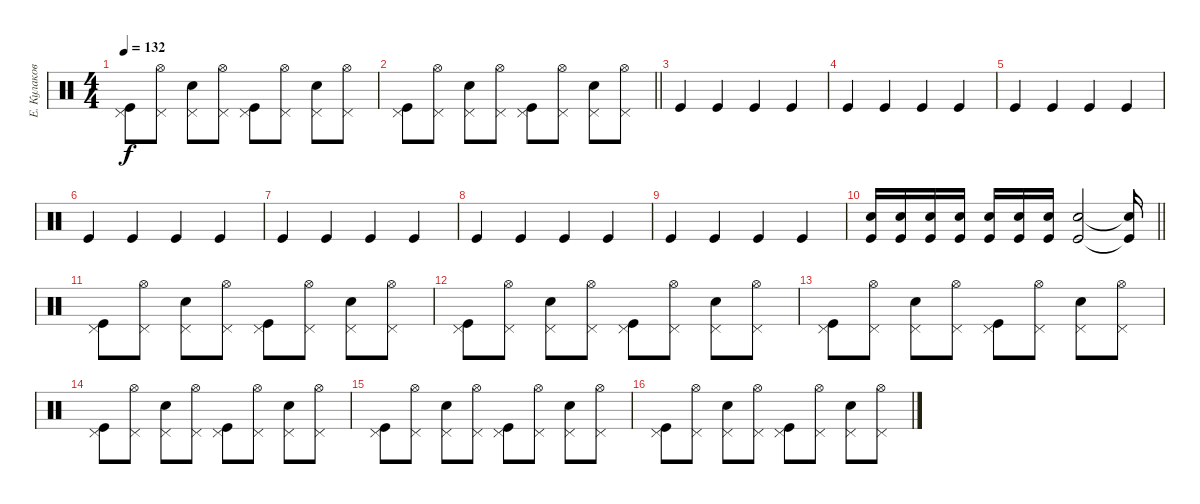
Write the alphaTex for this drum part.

\track ("Е. Кулаков" "Е. Кулаков") {instrument percussion}
\staff {score}
\articulation defaults
\ts (4 4)
\tempo 132
\clef neutral
\ks c
("Kick (hit)" "Pedal Hi-Hat (hit)").8{dy f} ("Hi-Hat (open)" "Pedal Hi-Hat (hit)").8 ("Pedal Hi-Hat (hit)" "Snare (hit) 2").8 ("Hi-Hat (open)" "Pedal Hi-Hat (hit)").8 ("Kick (hit)" "Pedal Hi-Hat (hit)").8 ("Hi-Hat (open)" "Pedal Hi-Hat (hit)").8 ("Pedal Hi-Hat (hit)" "Snare (hit) 2").8 ("Hi-Hat (open)" "Pedal Hi-Hat (hit)").8 |
\barLineRight lightlight
("Kick (hit)" "Pedal Hi-Hat (hit)").8 ("Hi-Hat (open)" "Pedal Hi-Hat (hit)").8 ("Pedal Hi-Hat (hit)" "Snare (hit) 2").8 ("Hi-Hat (open)" "Pedal Hi-Hat (hit)").8 ("Kick (hit)" "Pedal Hi-Hat (hit)").8 ("Hi-Hat (open)" "Pedal Hi-Hat (hit)").8 ("Pedal Hi-Hat (hit)" "Snare (hit) 2").8 ("Hi-Hat (open)" "Pedal Hi-Hat (hit)").8 |
\section ("" "")
"Kick (hit)".4 "Kick (hit)".4 "Kick (hit)".4 "Kick (hit)".4 |
"Kick (hit)".4 "Kick (hit)".4 "Kick (hit)".4 "Kick (hit)".4 |
"Kick (hit)".4 "Kick (hit)".4 "Kick (hit)".4 "Kick (hit)".4 |
"Kick (hit)".4 "Kick (hit)".4 "Kick (hit)".4 "Kick (hit)".4 |
"Kick (hit)".4 "Kick (hit)".4 "Kick (hit)".4 "Kick (hit)".4 |
"Kick (hit)".4 "Kick (hit)".4 "Kick (hit)".4 "Kick (hit)".4 |
"Kick (hit)".4 "Kick (hit)".4 "Kick (hit)".4 "Kick (hit)".4 |
\barLineRight lightlight
("Kick (hit)" "Snare (hit) 2").16 ("Kick (hit)" "Snare (hit) 2").16 ("Kick (hit)" "Snare (hit) 2").16 ("Kick (hit)" "Snare (hit) 2").16 ("Kick (hit)" "Snare (hit) 2").16 ("Kick (hit)" "Snare (hit) 2").16 ("Kick (hit)" "Snare (hit) 2").16 ("Kick (hit)" "Snare (hit) 2").2 ("Kick (hit)"{t} "Snare (hit) 2"{t}).16 |
\section ("" "")
("Kick (hit)" "Pedal Hi-Hat (hit)").8 ("Hi-Hat (open)" "Pedal Hi-Hat (hit)").8 ("Pedal Hi-Hat (hit)" "Snare (hit) 2").8 ("Hi-Hat (open)" "Pedal Hi-Hat (hit)").8 ("Kick (hit)" "Pedal Hi-Hat (hit)").8 ("Hi-Hat (open)" "Pedal Hi-Hat (hit)").8 ("Pedal Hi-Hat (hit)" "Snare (hit) 2").8 ("Hi-Hat (open)" "Pedal Hi-Hat (hit)").8 |
("Kick (hit)" "Pedal Hi-Hat (hit)").8 ("Hi-Hat (open)" "Pedal Hi-Hat (hit)").8 ("Pedal Hi-Hat (hit)" "Snare (hit) 2").8 ("Hi-Hat (open)" "Pedal Hi-Hat (hit)").8 ("Kick (hit)" "Pedal Hi-Hat (hit)").8 ("Hi-Hat (open)" "Pedal Hi-Hat (hit)").8 ("Pedal Hi-Hat (hit)" "Snare (hit) 2").8 ("Hi-Hat (open)" "Pedal Hi-Hat (hit)").8 |
("Kick (hit)" "Pedal Hi-Hat (hit)").8 ("Hi-Hat (open)" "Pedal Hi-Hat (hit)").8 ("Pedal Hi-Hat (hit)" "Snare (hit) 2").8 ("Hi-Hat (open)" "Pedal Hi-Hat (hit)").8 ("Kick (hit)" "Pedal Hi-Hat (hit)").8 ("Hi-Hat (open)" "Pedal Hi-Hat (hit)").8 ("Pedal Hi-Hat (hit)" "Snare (hit) 2").8 ("Hi-Hat (open)" "Pedal Hi-Hat (hit)").8 |
("Kick (hit)" "Pedal Hi-Hat (hit)").8 ("Hi-Hat (open)" "Pedal Hi-Hat (hit)").8 ("Pedal Hi-Hat (hit)" "Snare (hit) 2").8 ("Hi-Hat (open)" "Pedal Hi-Hat (hit)").8 ("Kick (hit)" "Pedal Hi-Hat (hit)").8 ("Hi-Hat (open)" "Pedal Hi-Hat (hit)").8 ("Pedal Hi-Hat (hit)" "Snare (hit) 2").8 ("Hi-Hat (open)" "Pedal Hi-Hat (hit)").8 |
("Kick (hit)" "Pedal Hi-Hat (hit)").8 ("Hi-Hat (open)" "Pedal Hi-Hat (hit)").8 ("Pedal Hi-Hat (hit)" "Snare (hit) 2").8 ("Hi-Hat (open)" "Pedal Hi-Hat (hit)").8 ("Kick (hit)" "Pedal Hi-Hat (hit)").8 ("Hi-Hat (open)" "Pedal Hi-Hat (hit)").8 ("Pedal Hi-Hat (hit)" "Snare (hit) 2").8 ("Hi-Hat (open)" "Pedal Hi-Hat (hit)").8 |
("Kick (hit)" "Pedal Hi-Hat (hit)").8 ("Hi-Hat (open)" "Pedal Hi-Hat (hit)").8 ("Pedal Hi-Hat (hit)" "Snare (hit) 2").8 ("Hi-Hat (open)" "Pedal Hi-Hat (hit)").8 ("Kick (hit)" "Pedal Hi-Hat (hit)").8 ("Hi-Hat (open)" "Pedal Hi-Hat (hit)").8 ("Pedal Hi-Hat (hit)" "Snare (hit) 2").8 ("Hi-Hat (open)" "Pedal Hi-Hat (hit)").8
